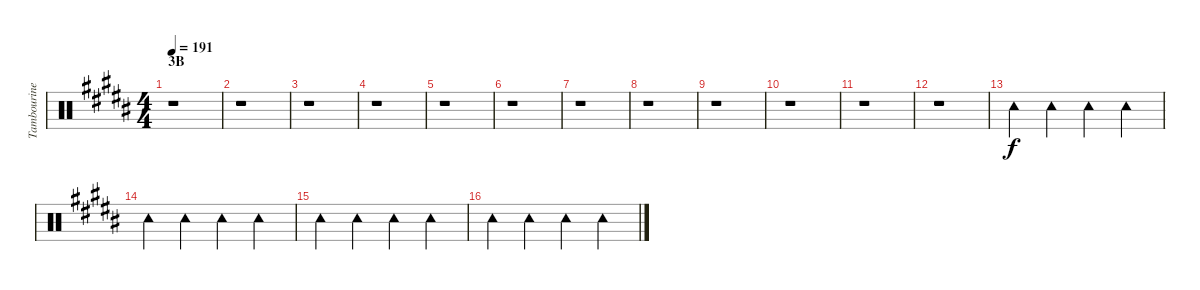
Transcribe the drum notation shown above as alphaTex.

\track ("Tambourine" "Tambourine") {instrument percussion}
\staff {score}
\articulation defaults
\ts (4 4)
\section ("" "3B")
\tempo 191
\clef neutral
\ks b
r.1{dy f} |
r.1 |
r.1 |
r.1 |
r.1 |
r.1 |
r.1 |
r.1 |
r.1 |
r.1 |
r.1 |
r.1 |
"Tambourine (hit)".4 "Tambourine (hit)".4 "Tambourine (hit)".4 "Tambourine (hit)".4 |
"Tambourine (hit)".4 "Tambourine (hit)".4 "Tambourine (hit)".4 "Tambourine (hit)".4 |
"Tambourine (hit)".4 "Tambourine (hit)".4 "Tambourine (hit)".4 "Tambourine (hit)".4 |
"Tambourine (hit)".4 "Tambourine (hit)".4 "Tambourine (hit)".4 "Tambourine (hit)".4
